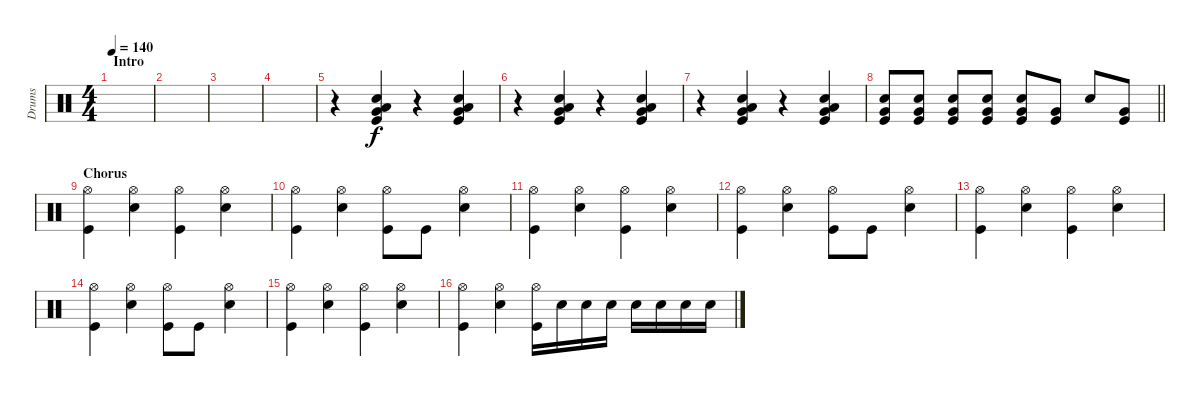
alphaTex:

\track ("Drums" "Drums") {instrument percussion}
\staff {score}
\articulation defaults
\ts (4 4)
\section ("" "Intro")
\tempo 140
\clef neutral
\ks c
|
|
|
|
r.4 ("Snare (hit) 2" "Low Floor Tom (hit)" "Very Low Tom (hit)" "Kick (hit)").4 r.4 ("Snare (hit) 2" "Low Floor Tom (hit)" "Very Low Tom (hit)" "Kick (hit)").4 |
r.4 ("Snare (hit) 2" "Low Floor Tom (hit)" "Very Low Tom (hit)" "Kick (hit)").4 r.4 ("Snare (hit) 2" "Low Floor Tom (hit)" "Very Low Tom (hit)" "Kick (hit)").4 |
r.4 ("Snare (hit) 2" "Low Floor Tom (hit)" "Very Low Tom (hit)" "Kick (hit)").4 r.4 ("Snare (hit) 2" "Low Floor Tom (hit)" "Very Low Tom (hit)" "Kick (hit)").4 |
\barLineRight lightlight
("Snare (hit) 2" "Very Low Tom (hit)" "Kick (hit)").8 ("Snare (hit) 2" "Very Low Tom (hit)" "Kick (hit)").8 ("Snare (hit) 2" "Very Low Tom (hit)" "Kick (hit)").8 ("Snare (hit) 2" "Very Low Tom (hit)" "Kick (hit)").8 ("Snare (hit) 2" "Very Low Tom (hit)" "Kick (hit)").8 ("Very Low Tom (hit)" "Kick (hit)").8 "Snare (hit) 2".8 ("Very Low Tom (hit)" "Kick (hit)").8 |
\section ("" "Chorus")
("Hi-Hat (open)" "Kick (hit)").4 ("Hi-Hat (open)" "Snare (hit) 2").4 ("Hi-Hat (open)" "Kick (hit)").4 ("Hi-Hat (open)" "Snare (hit) 2").4 |
("Hi-Hat (open)" "Kick (hit)").4 ("Hi-Hat (open)" "Snare (hit) 2").4 ("Hi-Hat (open)" "Kick (hit)").8 "Kick (hit)".8 ("Hi-Hat (open)" "Snare (hit) 2").4 |
("Hi-Hat (open)" "Kick (hit)").4 ("Hi-Hat (open)" "Snare (hit) 2").4 ("Hi-Hat (open)" "Kick (hit)").4 ("Hi-Hat (open)" "Snare (hit) 2").4 |
("Hi-Hat (open)" "Kick (hit)").4 ("Hi-Hat (open)" "Snare (hit) 2").4 ("Hi-Hat (open)" "Kick (hit)").8 "Kick (hit)".8 ("Hi-Hat (open)" "Snare (hit) 2").4 |
("Hi-Hat (open)" "Kick (hit)").4 ("Hi-Hat (open)" "Snare (hit) 2").4 ("Hi-Hat (open)" "Kick (hit)").4 ("Hi-Hat (open)" "Snare (hit) 2").4 |
("Hi-Hat (open)" "Kick (hit)").4 ("Hi-Hat (open)" "Snare (hit) 2").4 ("Hi-Hat (open)" "Kick (hit)").8 "Kick (hit)".8 ("Hi-Hat (open)" "Snare (hit) 2").4 |
("Hi-Hat (open)" "Kick (hit)").4 ("Hi-Hat (open)" "Snare (hit) 2").4 ("Hi-Hat (open)" "Kick (hit)").4 ("Hi-Hat (open)" "Snare (hit) 2").4 |
("Hi-Hat (open)" "Kick (hit)").4 ("Hi-Hat (open)" "Snare (hit) 2").4 ("Hi-Hat (open)" "Kick (hit)").16 "Snare (hit) 2".16 "Snare (hit) 2".16 "Snare (hit) 2".16 "Snare (hit) 2".16 "Snare (hit) 2".16 "Snare (hit) 2".16 "Snare (hit) 2".16
